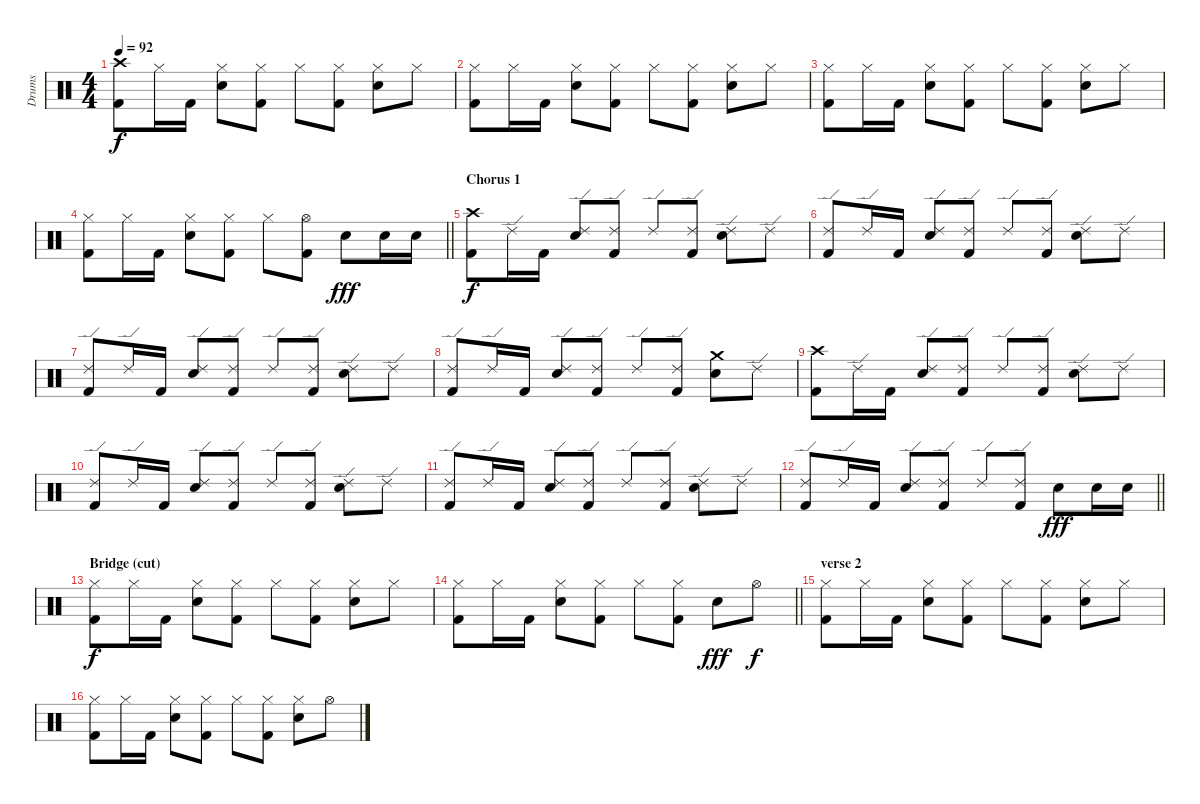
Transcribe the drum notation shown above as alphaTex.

\track ("Drums" "Drums") {instrument percussion}
\staff {score}
\articulation defaults
\ts (4 4)
\tempo 92
\clef neutral
\ks c
("Crash high (hit)" "Kick (hit) 2").8{dy f} "Hi-Hat (closed)".16 "Kick (hit) 2".16 ("Hi-Hat (closed)" "Electric Snare (hit)").8 ("Hi-Hat (closed)" "Kick (hit) 2").8 "Hi-Hat (closed)".8 ("Hi-Hat (closed)" "Kick (hit) 2").8 ("Hi-Hat (closed)" "Electric Snare (hit)").8 "Hi-Hat (closed)".8 |
("Hi-Hat (closed)" "Kick (hit) 2").8 "Hi-Hat (closed)".16 "Kick (hit) 2".16 ("Hi-Hat (closed)" "Electric Snare (hit)").8 ("Hi-Hat (closed)" "Kick (hit) 2").8 "Hi-Hat (closed)".8 ("Hi-Hat (closed)" "Kick (hit) 2").8 ("Hi-Hat (closed)" "Electric Snare (hit)").8 "Hi-Hat (closed)".8 |
("Hi-Hat (closed)" "Kick (hit) 2").8 "Hi-Hat (closed)".16 "Kick (hit) 2".16 ("Hi-Hat (closed)" "Electric Snare (hit)").8 ("Hi-Hat (closed)" "Kick (hit) 2").8 "Hi-Hat (closed)".8 ("Hi-Hat (closed)" "Kick (hit) 2").8 ("Hi-Hat (closed)" "Electric Snare (hit)").8 "Hi-Hat (closed)".8 |
\barLineRight lightlight
("Hi-Hat (closed)" "Kick (hit) 2").8 "Hi-Hat (closed)".16 "Kick (hit) 2".16 ("Hi-Hat (closed)" "Electric Snare (hit)").8 ("Hi-Hat (closed)" "Kick (hit) 2").8 "Hi-Hat (closed)".8 ("Hi-Hat (open)" "Kick (hit) 2").8 "Electric Snare (hit)".8{dy fff} "Electric Snare (hit)".16 "Electric Snare (hit)".16 |
\section ("" "Chorus 1")
("Crash high (hit)" "Kick (hit) 2").8{dy f} "Ride (edge) 2".16 "Kick (hit) 2".16 ("Ride (edge) 2" "Electric Snare (hit)").8 ("Ride (edge) 2" "Kick (hit) 2").8 "Ride (edge) 2".8 ("Ride (edge) 2" "Kick (hit) 2").8 ("Ride (edge) 2" "Electric Snare (hit)").8 "Ride (edge) 2".8 |
("Ride (edge) 2" "Kick (hit) 2").8 "Ride (edge) 2".16 "Kick (hit) 2".16 ("Ride (edge) 2" "Electric Snare (hit)").8 ("Ride (edge) 2" "Kick (hit) 2").8 "Ride (edge) 2".8 ("Ride (edge) 2" "Kick (hit) 2").8 ("Ride (edge) 2" "Electric Snare (hit)").8 "Ride (edge) 2".8 |
("Ride (edge) 2" "Kick (hit) 2").8 "Ride (edge) 2".16 "Kick (hit) 2".16 ("Ride (edge) 2" "Electric Snare (hit)").8 ("Ride (edge) 2" "Kick (hit) 2").8 "Ride (edge) 2".8 ("Ride (edge) 2" "Kick (hit) 2").8 ("Ride (edge) 2" "Electric Snare (hit)").8 "Ride (edge) 2".8 |
("Ride (edge) 2" "Kick (hit) 2").8 "Ride (edge) 2".16 "Kick (hit) 2".16 ("Ride (edge) 2" "Electric Snare (hit)").8 ("Ride (edge) 2" "Kick (hit) 2").8 "Ride (edge) 2".8 ("Ride (edge) 2" "Kick (hit) 2").8 ("Crash medium (hit)" "Electric Snare (hit)").8 "Ride (edge) 2".8 |
("Crash high (hit)" "Kick (hit) 2").8 "Ride (edge) 2".16 "Kick (hit) 2".16 ("Ride (edge) 2" "Electric Snare (hit)").8 ("Ride (edge) 2" "Kick (hit) 2").8 "Ride (edge) 2".8 ("Ride (edge) 2" "Kick (hit) 2").8 ("Ride (edge) 2" "Electric Snare (hit)").8 "Ride (edge) 2".8 |
("Ride (edge) 2" "Kick (hit) 2").8 "Ride (edge) 2".16 "Kick (hit) 2".16 ("Ride (edge) 2" "Electric Snare (hit)").8 ("Ride (edge) 2" "Kick (hit) 2").8 "Ride (edge) 2".8 ("Ride (edge) 2" "Kick (hit) 2").8 ("Ride (edge) 2" "Electric Snare (hit)").8 "Ride (edge) 2".8 |
("Ride (edge) 2" "Kick (hit) 2").8 "Ride (edge) 2".16 "Kick (hit) 2".16 ("Ride (edge) 2" "Electric Snare (hit)").8 ("Ride (edge) 2" "Kick (hit) 2").8 "Ride (edge) 2".8 ("Ride (edge) 2" "Kick (hit) 2").8 ("Ride (edge) 2" "Electric Snare (hit)").8 "Ride (edge) 2".8 |
\barLineRight lightlight
("Ride (edge) 2" "Kick (hit) 2").8 "Ride (edge) 2".16 "Kick (hit) 2".16 ("Ride (edge) 2" "Electric Snare (hit)").8 ("Ride (edge) 2" "Kick (hit) 2").8 "Ride (edge) 2".8 ("Ride (edge) 2" "Kick (hit) 2").8 "Electric Snare (hit)".8{dy fff} "Electric Snare (hit)".16 "Electric Snare (hit)".16 |
\section ("" "Bridge (cut)")
("Hi-Hat (closed)" "Kick (hit) 2").8{dy f} "Hi-Hat (closed)".16 "Kick (hit) 2".16 ("Hi-Hat (closed)" "Electric Snare (hit)").8 ("Hi-Hat (closed)" "Kick (hit) 2").8 "Hi-Hat (closed)".8 ("Hi-Hat (closed)" "Kick (hit) 2").8 ("Hi-Hat (closed)" "Electric Snare (hit)").8 "Hi-Hat (closed)".8 |
\barLineRight lightlight
("Hi-Hat (closed)" "Kick (hit) 2").8 "Hi-Hat (closed)".16 "Kick (hit) 2".16 ("Hi-Hat (closed)" "Electric Snare (hit)").8 ("Hi-Hat (closed)" "Kick (hit) 2").8 "Hi-Hat (closed)".8 ("Hi-Hat (closed)" "Kick (hit) 2").8 "Electric Snare (hit)".8{dy fff} "Hi-Hat (open)".8{dy f} |
\section ("" "verse 2")
("Hi-Hat (closed)" "Kick (hit) 2").8 "Hi-Hat (closed)".16 "Kick (hit) 2".16 ("Hi-Hat (closed)" "Electric Snare (hit)").8 ("Hi-Hat (closed)" "Kick (hit) 2").8 "Hi-Hat (closed)".8 ("Hi-Hat (closed)" "Kick (hit) 2").8 ("Hi-Hat (closed)" "Electric Snare (hit)").8 "Hi-Hat (closed)".8 |
("Hi-Hat (closed)" "Kick (hit) 2").8 "Hi-Hat (closed)".16 "Kick (hit) 2".16 ("Hi-Hat (closed)" "Electric Snare (hit)").8 ("Hi-Hat (closed)" "Kick (hit) 2").8 "Hi-Hat (closed)".8 ("Hi-Hat (closed)" "Kick (hit) 2").8 ("Hi-Hat (closed)" "Electric Snare (hit)").8 "Hi-Hat (open)".8
